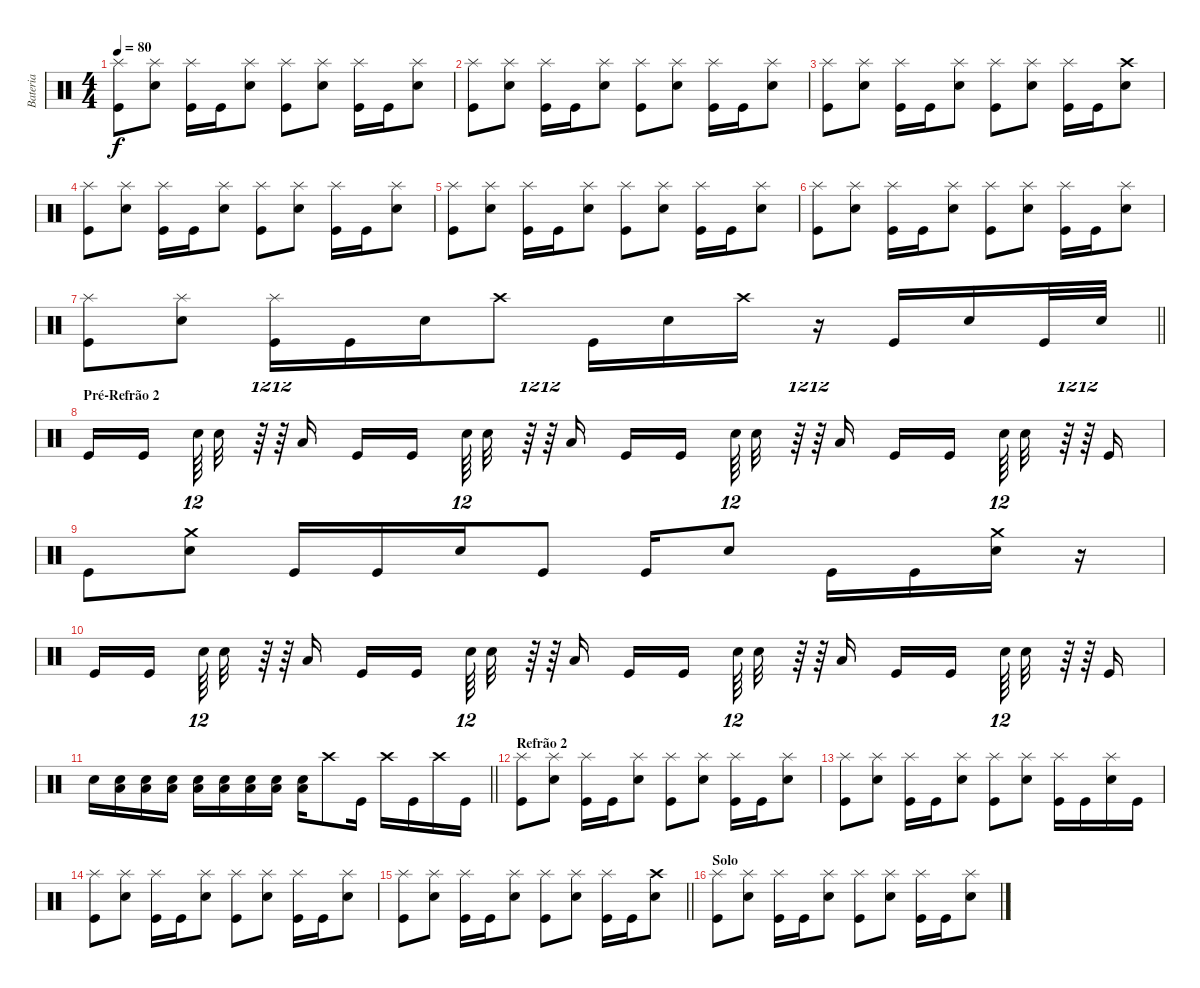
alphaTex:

\track ("Bateria" "Bateria") {instrument percussion}
\staff {score}
\articulation defaults
\ts (4 4)
\tempo 80
\clef neutral
\ks c
("Kick (hit)" "Splash (hit)").8{dy f} ("Electric Snare (hit)" "Splash (hit)").8 ("Kick (hit)" "Splash (hit)").16 "Kick (hit)".16 ("Electric Snare (hit)" "Splash (hit)").8 ("Kick (hit)" "Splash (hit)").8 ("Electric Snare (hit)" "Splash (hit)").8 ("Kick (hit)" "Splash (hit)").16 "Kick (hit)".16 ("Electric Snare (hit)" "Splash (hit)").8 |
("Kick (hit)" "Splash (hit)").8 ("Electric Snare (hit)" "Splash (hit)").8 ("Kick (hit)" "Splash (hit)").16 "Kick (hit)".16 ("Electric Snare (hit)" "Splash (hit)").8 ("Kick (hit)" "Splash (hit)").8 ("Electric Snare (hit)" "Splash (hit)").8 ("Kick (hit)" "Splash (hit)").16 "Kick (hit)".16 ("Electric Snare (hit)" "Splash (hit)").8 |
("Kick (hit)" "Splash (hit)").8 ("Electric Snare (hit)" "Splash (hit)").8 ("Kick (hit)" "Splash (hit)").16 "Kick (hit)".16 ("Electric Snare (hit)" "Splash (hit)").8 ("Kick (hit)" "Splash (hit)").8 ("Electric Snare (hit)" "Splash (hit)").8 ("Kick (hit)" "Splash (hit)").16 "Kick (hit)".16 ("Electric Snare (hit)" "Crash high (hit)").8 |
("Kick (hit)" "Splash (hit)").8 ("Electric Snare (hit)" "Splash (hit)").8 ("Kick (hit)" "Splash (hit)").16 "Kick (hit)".16 ("Electric Snare (hit)" "Splash (hit)").8 ("Kick (hit)" "Splash (hit)").8 ("Electric Snare (hit)" "Splash (hit)").8 ("Kick (hit)" "Splash (hit)").16 "Kick (hit)".16 ("Electric Snare (hit)" "Splash (hit)").8 |
("Kick (hit)" "Splash (hit)").8 ("Electric Snare (hit)" "Splash (hit)").8 ("Kick (hit)" "Splash (hit)").16 "Kick (hit)".16 ("Electric Snare (hit)" "Splash (hit)").8 ("Kick (hit)" "Splash (hit)").8 ("Electric Snare (hit)" "Splash (hit)").8 ("Kick (hit)" "Splash (hit)").16 "Kick (hit)".16 ("Electric Snare (hit)" "Splash (hit)").8 |
("Kick (hit)" "Splash (hit)").8 ("Electric Snare (hit)" "Splash (hit)").8 ("Kick (hit)" "Splash (hit)").16 "Kick (hit)".16 ("Electric Snare (hit)" "Splash (hit)").8 ("Kick (hit)" "Splash (hit)").8 ("Electric Snare (hit)" "Splash (hit)").8 ("Kick (hit)" "Splash (hit)").16 "Kick (hit)".16 ("Electric Snare (hit)" "Splash (hit)").8 |
\barLineRight lightlight
("Kick (hit)" "Splash (hit)").8 ("Electric Snare (hit)" "Splash (hit)").8 ("Kick (hit)" "Splash (hit)").16 "Kick (hit)".16 "Electric Snare (hit)".16 "Crash high (hit)".8 "Kick (hit)".16 "Electric Snare (hit)".16 "Crash high (hit)".16 r.16 "Kick (hit)".16 "Electric Snare (hit)".16 "Kick (hit)".32 "Electric Snare (hit)".32 |
\section ("" "Pré-Refrão 2")
"Kick (hit)".16 "Kick (hit)".16{beam splitsecondary} "Electric Snare (hit)".64{tu (12 8)} "Electric Snare (hit)".32 r.64{tu (12 8)} r.64{tu (12 8)} "Low Tom (hit)".16 "Kick (hit)".16 "Kick (hit)".16{beam splitsecondary} "Electric Snare (hit)".64{tu (12 8)} "Electric Snare (hit)".32 r.64{tu (12 8)} r.64{tu (12 8)} "Low Tom (hit)".16 "Kick (hit)".16 "Kick (hit)".16{beam splitsecondary} "Electric Snare (hit)".64{tu (12 8)} "Electric Snare (hit)".32 r.64{tu (12 8)} r.64{tu (12 8)} "Low Tom (hit)".16 "Kick (hit)".16 "Kick (hit)".16{beam splitsecondary} "Electric Snare (hit)".64{tu (12 8)} "Electric Snare (hit)".32 r.64{tu (12 8)} r.64{tu (12 8)} "Kick (hit)".16 |
"Kick (hit)".8 ("Electric Snare (hit)" "Crash medium (hit)").8 "Kick (hit)".16 "Kick (hit)".16 "Electric Snare (hit)".16 "Kick (hit)".8 "Kick (hit)".16 "Electric Snare (hit)".8 "Kick (hit)".16 "Kick (hit)".16 ("Electric Snare (hit)" "Crash medium (hit)").16 r.16 |
"Kick (hit)".16 "Kick (hit)".16{beam splitsecondary} "Electric Snare (hit)".64{tu (12 8)} "Electric Snare (hit)".32 r.64{tu (12 8)} r.64{tu (12 8)} "Low Tom (hit)".16 "Kick (hit)".16 "Kick (hit)".16{beam splitsecondary} "Electric Snare (hit)".64{tu (12 8)} "Electric Snare (hit)".32 r.64{tu (12 8)} r.64{tu (12 8)} "Low Tom (hit)".16 "Kick (hit)".16 "Kick (hit)".16{beam splitsecondary} "Electric Snare (hit)".64{tu (12 8)} "Electric Snare (hit)".32 r.64{tu (12 8)} r.64{tu (12 8)} "Low Tom (hit)".16 "Kick (hit)".16 "Kick (hit)".16{beam splitsecondary} "Electric Snare (hit)".64{tu (12 8)} "Electric Snare (hit)".32 r.64{tu (12 8)} r.64{tu (12 8)} "Kick (hit)".16 |
\barLineRight lightlight "Electric Snare (hit)".16
("Electric Snare (hit)" "Low Floor Tom (hit)").16 ("Electric Snare (hit)" "Low Floor Tom (hit)").16 ("Electric Snare (hit)" "Low Floor Tom (hit)").16 ("Electric Snare (hit)" "Low Floor Tom (hit)").16 ("Electric Snare (hit)" "Low Floor Tom (hit)").16 ("Electric Snare (hit)" "Low Floor Tom (hit)").16 ("Electric Snare (hit)" "Low Floor Tom (hit)").16 ("Electric Snare (hit)" "Low Floor Tom (hit)").16 "Crash high (hit)".8 "Kick (hit)".16 "Crash high (hit)".16 "Kick (hit)".16 "Crash high (hit)".16 "Kick (hit)".16 |
\section ("" "Refrão 2")
("Kick (hit)" "Splash (hit)").8 ("Electric Snare (hit)" "Splash (hit)").8 ("Kick (hit)" "Splash (hit)").16 "Kick (hit)".16 ("Electric Snare (hit)" "Splash (hit)").8 ("Kick (hit)" "Splash (hit)").8 ("Electric Snare (hit)" "Splash (hit)").8 ("Kick (hit)" "Splash (hit)").16 "Kick (hit)".16 ("Electric Snare (hit)" "Splash (hit)").8 |
("Kick (hit)" "Splash (hit)").8 ("Electric Snare (hit)" "Splash (hit)").8 ("Kick (hit)" "Splash (hit)").16 "Kick (hit)".16 ("Electric Snare (hit)" "Splash (hit)").8 ("Kick (hit)" "Splash (hit)").8 ("Electric Snare (hit)" "Splash (hit)").8 ("Kick (hit)" "Splash (hit)").16 "Kick (hit)".16 ("Electric Snare (hit)" "Splash (hit)").16 "Kick (hit)".16 |
("Kick (hit)" "Splash (hit)").8 ("Electric Snare (hit)" "Splash (hit)").8 ("Kick (hit)" "Splash (hit)").16 "Kick (hit)".16 ("Electric Snare (hit)" "Splash (hit)").8 ("Kick (hit)" "Splash (hit)").8 ("Electric Snare (hit)" "Splash (hit)").8 ("Kick (hit)" "Splash (hit)").16 "Kick (hit)".16 ("Electric Snare (hit)" "Splash (hit)").8 |
\barLineRight lightlight
("Kick (hit)" "Splash (hit)").8 ("Electric Snare (hit)" "Splash (hit)").8 ("Kick (hit)" "Splash (hit)").16 "Kick (hit)".16 ("Electric Snare (hit)" "Splash (hit)").8 ("Kick (hit)" "Splash (hit)").8 ("Electric Snare (hit)" "Splash (hit)").8 ("Kick (hit)" "Splash (hit)").16 "Kick (hit)".16 ("Electric Snare (hit)" "Crash high (hit)").8 |
\section ("" "Solo")
("Kick (hit)" "Splash (hit)").8 ("Electric Snare (hit)" "Splash (hit)").8 ("Kick (hit)" "Splash (hit)").16 "Kick (hit)".16 ("Electric Snare (hit)" "Splash (hit)").8 ("Kick (hit)" "Splash (hit)").8 ("Electric Snare (hit)" "Splash (hit)").8 ("Kick (hit)" "Splash (hit)").16 "Kick (hit)".16 ("Electric Snare (hit)" "Splash (hit)").8
